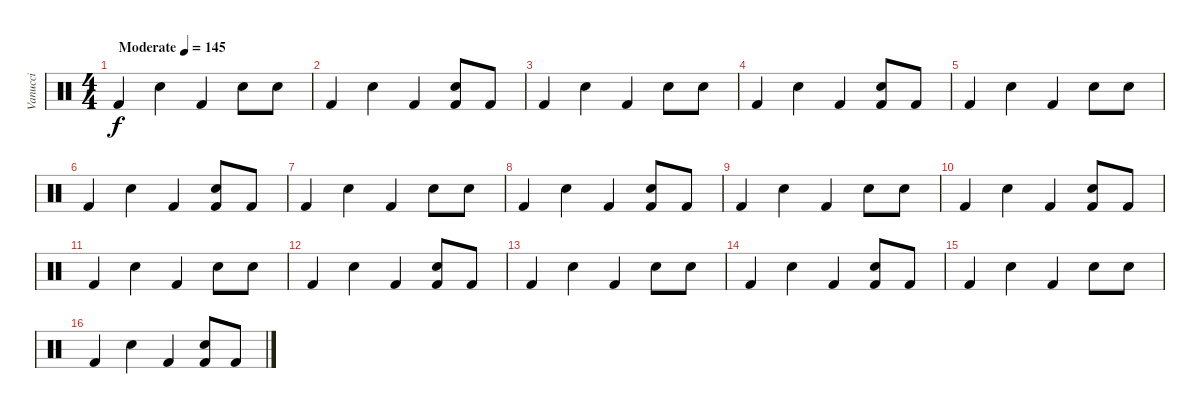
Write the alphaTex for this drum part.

\track ("Vanucci" "Vanucci") {instrument percussion}
\staff {score}
\articulation defaults
\ts (4 4)
\tempo (145 "Moderate")
\clef neutral
\ks c "Kick (hit) 2".4{dy f} "Electric Snare (hit)".4 "Kick (hit) 2".4 "Electric Snare (hit)".8 "Electric Snare (hit)".8
|
"Kick (hit) 2".4 "Electric Snare (hit)".4 "Kick (hit) 2".4 ("Electric Snare (hit)" "Kick (hit) 2").8 "Kick (hit) 2".8 |
"Kick (hit) 2".4 "Electric Snare (hit)".4 "Kick (hit) 2".4 "Electric Snare (hit)".8 "Electric Snare (hit)".8 |
"Kick (hit) 2".4 "Electric Snare (hit)".4 "Kick (hit) 2".4 ("Electric Snare (hit)" "Kick (hit) 2").8 "Kick (hit) 2".8 |
"Kick (hit) 2".4 "Electric Snare (hit)".4 "Kick (hit) 2".4 "Electric Snare (hit)".8 "Electric Snare (hit)".8 |
"Kick (hit) 2".4 "Electric Snare (hit)".4 "Kick (hit) 2".4 ("Electric Snare (hit)" "Kick (hit) 2").8 "Kick (hit) 2".8 |
"Kick (hit) 2".4 "Electric Snare (hit)".4 "Kick (hit) 2".4 "Electric Snare (hit)".8 "Electric Snare (hit)".8 |
"Kick (hit) 2".4 "Electric Snare (hit)".4 "Kick (hit) 2".4 ("Electric Snare (hit)" "Kick (hit) 2").8 "Kick (hit) 2".8 |
"Kick (hit) 2".4 "Electric Snare (hit)".4 "Kick (hit) 2".4 "Electric Snare (hit)".8 "Electric Snare (hit)".8 |
"Kick (hit) 2".4 "Electric Snare (hit)".4 "Kick (hit) 2".4 ("Electric Snare (hit)" "Kick (hit) 2").8 "Kick (hit) 2".8 |
"Kick (hit) 2".4 "Electric Snare (hit)".4 "Kick (hit) 2".4 "Electric Snare (hit)".8 "Electric Snare (hit)".8 |
"Kick (hit) 2".4 "Electric Snare (hit)".4 "Kick (hit) 2".4 ("Electric Snare (hit)" "Kick (hit) 2").8 "Kick (hit) 2".8 |
"Kick (hit) 2".4 "Electric Snare (hit)".4 "Kick (hit) 2".4 "Electric Snare (hit)".8 "Electric Snare (hit)".8 |
"Kick (hit) 2".4 "Electric Snare (hit)".4 "Kick (hit) 2".4 ("Electric Snare (hit)" "Kick (hit) 2").8 "Kick (hit) 2".8 |
"Kick (hit) 2".4 "Electric Snare (hit)".4 "Kick (hit) 2".4 "Electric Snare (hit)".8 "Electric Snare (hit)".8 |
"Kick (hit) 2".4 "Electric Snare (hit)".4 "Kick (hit) 2".4 ("Electric Snare (hit)" "Kick (hit) 2").8 "Kick (hit) 2".8
